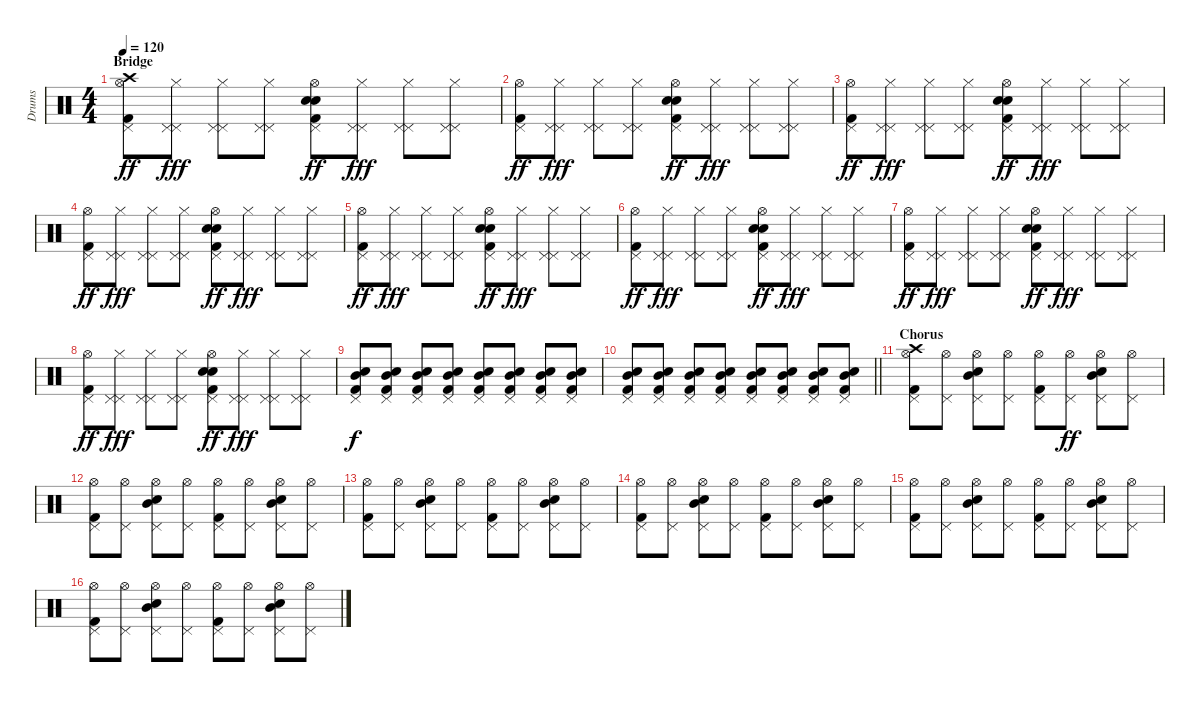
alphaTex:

\track ("Drums" "Drums") {instrument percussion}
\staff {score}
\articulation defaults
\ts (4 4)
\section ("" "Bridge")
\tempo 120
\clef neutral
\ks c
("Crash high (hit)" "Hi-Hat (open)" "Pedal Hi-Hat (hit)" "Kick (hit) 2").8{dy ff} ("Hi-Hat (closed)" "Pedal Hi-Hat (hit)" "Pedal Hi-Hat (hit)").8{dy fff} ("Hi-Hat (closed)" "Pedal Hi-Hat (hit)" "Pedal Hi-Hat (hit)").8 ("Hi-Hat (closed)" "Pedal Hi-Hat (hit)" "Pedal Hi-Hat (hit)").8 ("Snare (hit) 2" "Hi-Hat (open)" "Electric Snare (hit)" "Pedal Hi-Hat (hit)" "Kick (hit) 2").8{dy ff} ("Hi-Hat (closed)" "Pedal Hi-Hat (hit)" "Pedal Hi-Hat (hit)").8{dy fff} ("Hi-Hat (closed)" "Pedal Hi-Hat (hit)" "Pedal Hi-Hat (hit)").8 ("Hi-Hat (closed)" "Pedal Hi-Hat (hit)" "Pedal Hi-Hat (hit)").8 |
("Hi-Hat (open)" "Pedal Hi-Hat (hit)" "Kick (hit) 2").8{dy ff} ("Hi-Hat (closed)" "Pedal Hi-Hat (hit)" "Pedal Hi-Hat (hit)").8{dy fff} ("Hi-Hat (closed)" "Pedal Hi-Hat (hit)" "Pedal Hi-Hat (hit)").8 ("Hi-Hat (closed)" "Pedal Hi-Hat (hit)" "Pedal Hi-Hat (hit)").8 ("Snare (hit) 2" "Hi-Hat (open)" "Electric Snare (hit)" "Pedal Hi-Hat (hit)" "Kick (hit) 2").8{dy ff} ("Hi-Hat (closed)" "Pedal Hi-Hat (hit)" "Pedal Hi-Hat (hit)").8{dy fff} ("Hi-Hat (closed)" "Pedal Hi-Hat (hit)" "Pedal Hi-Hat (hit)").8 ("Hi-Hat (closed)" "Pedal Hi-Hat (hit)" "Pedal Hi-Hat (hit)").8 |
("Hi-Hat (open)" "Pedal Hi-Hat (hit)" "Kick (hit) 2").8{dy ff} ("Hi-Hat (closed)" "Pedal Hi-Hat (hit)" "Pedal Hi-Hat (hit)").8{dy fff} ("Hi-Hat (closed)" "Pedal Hi-Hat (hit)" "Pedal Hi-Hat (hit)").8 ("Hi-Hat (closed)" "Pedal Hi-Hat (hit)" "Pedal Hi-Hat (hit)").8 ("Snare (hit) 2" "Hi-Hat (open)" "Electric Snare (hit)" "Pedal Hi-Hat (hit)" "Kick (hit) 2").8{dy ff} ("Hi-Hat (closed)" "Pedal Hi-Hat (hit)" "Pedal Hi-Hat (hit)").8{dy fff} ("Hi-Hat (closed)" "Pedal Hi-Hat (hit)" "Pedal Hi-Hat (hit)").8 ("Hi-Hat (closed)" "Pedal Hi-Hat (hit)" "Pedal Hi-Hat (hit)").8 |
("Hi-Hat (open)" "Pedal Hi-Hat (hit)" "Kick (hit) 2").8{dy ff} ("Hi-Hat (closed)" "Pedal Hi-Hat (hit)" "Pedal Hi-Hat (hit)").8{dy fff} ("Hi-Hat (closed)" "Pedal Hi-Hat (hit)" "Pedal Hi-Hat (hit)").8 ("Hi-Hat (closed)" "Pedal Hi-Hat (hit)" "Pedal Hi-Hat (hit)").8 ("Snare (hit) 2" "Hi-Hat (open)" "Electric Snare (hit)" "Pedal Hi-Hat (hit)" "Kick (hit) 2").8{dy ff} ("Hi-Hat (closed)" "Pedal Hi-Hat (hit)" "Pedal Hi-Hat (hit)").8{dy fff} ("Hi-Hat (closed)" "Pedal Hi-Hat (hit)" "Pedal Hi-Hat (hit)").8 ("Hi-Hat (closed)" "Pedal Hi-Hat (hit)" "Pedal Hi-Hat (hit)").8 |
("Hi-Hat (open)" "Pedal Hi-Hat (hit)" "Kick (hit) 2").8{dy ff} ("Hi-Hat (closed)" "Pedal Hi-Hat (hit)" "Pedal Hi-Hat (hit)").8{dy fff} ("Hi-Hat (closed)" "Pedal Hi-Hat (hit)" "Pedal Hi-Hat (hit)").8 ("Hi-Hat (closed)" "Pedal Hi-Hat (hit)" "Pedal Hi-Hat (hit)").8 ("Snare (hit) 2" "Hi-Hat (open)" "Electric Snare (hit)" "Pedal Hi-Hat (hit)" "Kick (hit) 2").8{dy ff} ("Hi-Hat (closed)" "Pedal Hi-Hat (hit)" "Pedal Hi-Hat (hit)").8{dy fff} ("Hi-Hat (closed)" "Pedal Hi-Hat (hit)" "Pedal Hi-Hat (hit)").8 ("Hi-Hat (closed)" "Pedal Hi-Hat (hit)" "Pedal Hi-Hat (hit)").8 |
("Hi-Hat (open)" "Pedal Hi-Hat (hit)" "Kick (hit) 2").8{dy ff} ("Hi-Hat (closed)" "Pedal Hi-Hat (hit)" "Pedal Hi-Hat (hit)").8{dy fff} ("Hi-Hat (closed)" "Pedal Hi-Hat (hit)" "Pedal Hi-Hat (hit)").8 ("Hi-Hat (closed)" "Pedal Hi-Hat (hit)" "Pedal Hi-Hat (hit)").8 ("Snare (hit) 2" "Hi-Hat (open)" "Electric Snare (hit)" "Pedal Hi-Hat (hit)" "Kick (hit) 2").8{dy ff} ("Hi-Hat (closed)" "Pedal Hi-Hat (hit)" "Pedal Hi-Hat (hit)").8{dy fff} ("Hi-Hat (closed)" "Pedal Hi-Hat (hit)" "Pedal Hi-Hat (hit)").8 ("Hi-Hat (closed)" "Pedal Hi-Hat (hit)" "Pedal Hi-Hat (hit)").8 |
("Hi-Hat (open)" "Pedal Hi-Hat (hit)" "Kick (hit) 2").8{dy ff} ("Hi-Hat (closed)" "Pedal Hi-Hat (hit)" "Pedal Hi-Hat (hit)").8{dy fff} ("Hi-Hat (closed)" "Pedal Hi-Hat (hit)" "Pedal Hi-Hat (hit)").8 ("Hi-Hat (closed)" "Pedal Hi-Hat (hit)" "Pedal Hi-Hat (hit)").8 ("Snare (hit) 2" "Hi-Hat (open)" "Electric Snare (hit)" "Pedal Hi-Hat (hit)" "Kick (hit) 2").8{dy ff} ("Hi-Hat (closed)" "Pedal Hi-Hat (hit)" "Pedal Hi-Hat (hit)").8{dy fff} ("Hi-Hat (closed)" "Pedal Hi-Hat (hit)" "Pedal Hi-Hat (hit)").8 ("Hi-Hat (closed)" "Pedal Hi-Hat (hit)" "Pedal Hi-Hat (hit)").8 |
("Hi-Hat (open)" "Pedal Hi-Hat (hit)" "Kick (hit) 2").8{dy ff} ("Hi-Hat (closed)" "Pedal Hi-Hat (hit)" "Pedal Hi-Hat (hit)").8{dy fff} ("Hi-Hat (closed)" "Pedal Hi-Hat (hit)" "Pedal Hi-Hat (hit)").8 ("Hi-Hat (closed)" "Pedal Hi-Hat (hit)" "Pedal Hi-Hat (hit)").8 ("Snare (hit) 2" "Hi-Hat (open)" "Electric Snare (hit)" "Pedal Hi-Hat (hit)" "Kick (hit) 2").8{dy ff} ("Hi-Hat (closed)" "Pedal Hi-Hat (hit)" "Pedal Hi-Hat (hit)").8{dy fff} ("Hi-Hat (closed)" "Pedal Hi-Hat (hit)" "Pedal Hi-Hat (hit)").8 ("Hi-Hat (closed)" "Pedal Hi-Hat (hit)" "Pedal Hi-Hat (hit)").8 |
("Snare (hit) 2" "Mid Tom (hit)" "Pedal Hi-Hat (hit)" "Kick (hit) 2").8{dy f volume 8} ("Snare (hit) 2" "Mid Tom (hit)" "Pedal Hi-Hat (hit)" "Kick (hit) 2").8 ("Snare (hit) 2" "Mid Tom (hit)" "Pedal Hi-Hat (hit)" "Kick (hit) 2").8 ("Snare (hit) 2" "Mid Tom (hit)" "Pedal Hi-Hat (hit)" "Kick (hit) 2").8 ("Snare (hit) 2" "Mid Tom (hit)" "Pedal Hi-Hat (hit)" "Kick (hit) 2").8{volume 9} ("Snare (hit) 2" "Mid Tom (hit)" "Pedal Hi-Hat (hit)" "Kick (hit) 2").8 ("Snare (hit) 2" "Mid Tom (hit)" "Pedal Hi-Hat (hit)" "Kick (hit) 2").8 ("Snare (hit) 2" "Mid Tom (hit)" "Pedal Hi-Hat (hit)" "Kick (hit) 2").8 |
\barLineRight lightlight
("Snare (hit) 2" "Mid Tom (hit)" "Pedal Hi-Hat (hit)" "Kick (hit) 2").8{volume 10} ("Snare (hit) 2" "Mid Tom (hit)" "Pedal Hi-Hat (hit)" "Kick (hit) 2").8{volume 10} ("Snare (hit) 2" "Mid Tom (hit)" "Pedal Hi-Hat (hit)" "Kick (hit) 2").8{volume 11} ("Snare (hit) 2" "Mid Tom (hit)" "Pedal Hi-Hat (hit)" "Kick (hit) 2").8{volume 11} ("Snare (hit) 2" "Mid Tom (hit)" "Pedal Hi-Hat (hit)" "Kick (hit) 2").8{volume 12} ("Snare (hit) 2" "Mid Tom (hit)" "Pedal Hi-Hat (hit)" "Kick (hit) 2").8{volume 12} ("Snare (hit) 2" "Mid Tom (hit)" "Pedal Hi-Hat (hit)" "Kick (hit) 2").8{volume 12} ("Snare (hit) 2" "Mid Tom (hit)" "Pedal Hi-Hat (hit)" "Kick (hit) 2").8{volume 12} |
\section ("" "Chorus")
("Pedal Hi-Hat (hit)" "Hi-Hat (open)" "Crash high (hit)" "Kick (hit) 2").8 ("Pedal Hi-Hat (hit)" "Hi-Hat (open)").8 ("Pedal Hi-Hat (hit)" "Hi-Hat (open)" "Electric Snare (hit)" "Mid Tom (hit)").8 ("Pedal Hi-Hat (hit)" "Hi-Hat (open)").8 ("Pedal Hi-Hat (hit)" "Hi-Hat (open)" "Kick (hit) 2").8 ("Pedal Hi-Hat (hit)" "Hi-Hat (open)").8{dy ff} ("Pedal Hi-Hat (hit)" "Hi-Hat (open)" "Electric Snare (hit)" "Mid Tom (hit)").8 ("Pedal Hi-Hat (hit)" "Hi-Hat (open)").8 |
("Pedal Hi-Hat (hit)" "Hi-Hat (open)" "Kick (hit) 2").8 ("Pedal Hi-Hat (hit)" "Hi-Hat (open)").8 ("Pedal Hi-Hat (hit)" "Hi-Hat (open)" "Electric Snare (hit)" "Mid Tom (hit)").8 ("Pedal Hi-Hat (hit)" "Hi-Hat (open)").8 ("Pedal Hi-Hat (hit)" "Hi-Hat (open)" "Kick (hit) 2").8 ("Pedal Hi-Hat (hit)" "Hi-Hat (open)").8 ("Pedal Hi-Hat (hit)" "Hi-Hat (open)" "Electric Snare (hit)" "Mid Tom (hit)").8 ("Pedal Hi-Hat (hit)" "Hi-Hat (open)").8 |
("Pedal Hi-Hat (hit)" "Hi-Hat (open)" "Kick (hit) 2").8 ("Pedal Hi-Hat (hit)" "Hi-Hat (open)").8 ("Pedal Hi-Hat (hit)" "Hi-Hat (open)" "Electric Snare (hit)" "Mid Tom (hit)").8 ("Pedal Hi-Hat (hit)" "Hi-Hat (open)").8 ("Pedal Hi-Hat (hit)" "Hi-Hat (open)" "Kick (hit) 2").8 ("Pedal Hi-Hat (hit)" "Hi-Hat (open)").8 ("Pedal Hi-Hat (hit)" "Hi-Hat (open)" "Electric Snare (hit)" "Mid Tom (hit)").8 ("Pedal Hi-Hat (hit)" "Hi-Hat (open)").8 |
("Pedal Hi-Hat (hit)" "Hi-Hat (open)" "Kick (hit) 2").8 ("Pedal Hi-Hat (hit)" "Hi-Hat (open)").8 ("Pedal Hi-Hat (hit)" "Hi-Hat (open)" "Electric Snare (hit)" "Mid Tom (hit)").8 ("Pedal Hi-Hat (hit)" "Hi-Hat (open)").8 ("Pedal Hi-Hat (hit)" "Hi-Hat (open)" "Kick (hit) 2").8 ("Pedal Hi-Hat (hit)" "Hi-Hat (open)").8 ("Pedal Hi-Hat (hit)" "Hi-Hat (open)" "Electric Snare (hit)" "Mid Tom (hit)").8 ("Pedal Hi-Hat (hit)" "Hi-Hat (open)").8 |
("Pedal Hi-Hat (hit)" "Hi-Hat (open)" "Kick (hit) 2").8 ("Pedal Hi-Hat (hit)" "Hi-Hat (open)").8 ("Pedal Hi-Hat (hit)" "Hi-Hat (open)" "Electric Snare (hit)" "Mid Tom (hit)").8 ("Pedal Hi-Hat (hit)" "Hi-Hat (open)").8 ("Pedal Hi-Hat (hit)" "Hi-Hat (open)" "Kick (hit) 2").8 ("Pedal Hi-Hat (hit)" "Hi-Hat (open)").8 ("Pedal Hi-Hat (hit)" "Hi-Hat (open)" "Electric Snare (hit)" "Mid Tom (hit)").8 ("Pedal Hi-Hat (hit)" "Hi-Hat (open)").8 |
("Pedal Hi-Hat (hit)" "Hi-Hat (open)" "Kick (hit) 2").8 ("Pedal Hi-Hat (hit)" "Hi-Hat (open)").8 ("Pedal Hi-Hat (hit)" "Hi-Hat (open)" "Electric Snare (hit)" "Mid Tom (hit)").8 ("Pedal Hi-Hat (hit)" "Hi-Hat (open)").8 ("Pedal Hi-Hat (hit)" "Hi-Hat (open)" "Kick (hit) 2").8 ("Pedal Hi-Hat (hit)" "Hi-Hat (open)").8 ("Pedal Hi-Hat (hit)" "Hi-Hat (open)" "Electric Snare (hit)" "Mid Tom (hit)").8 ("Pedal Hi-Hat (hit)" "Hi-Hat (open)").8
